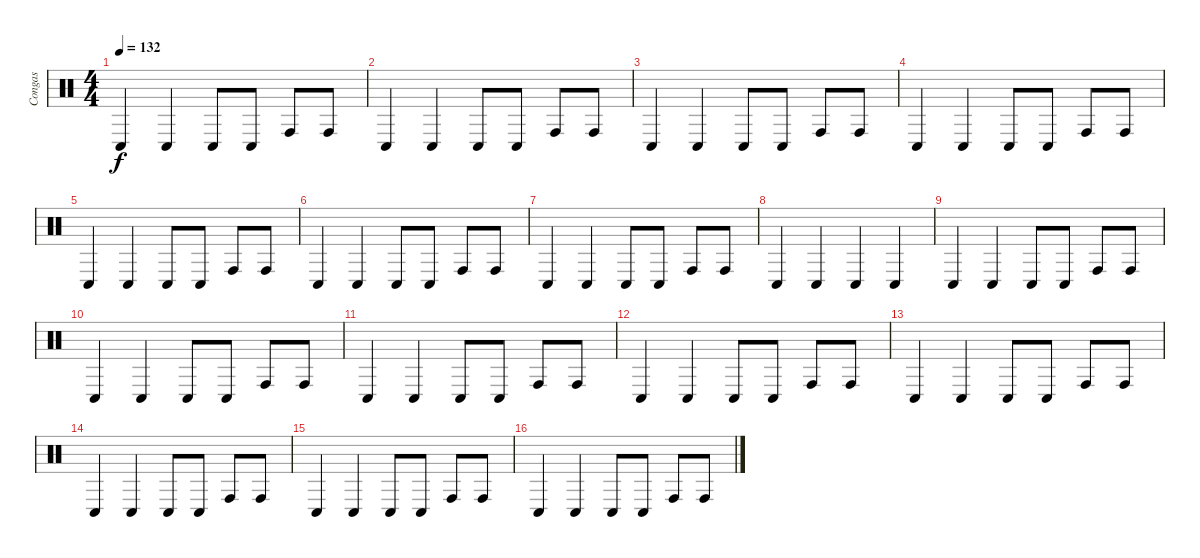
\track ("Congas" "Congas") {instrument percussion}
\staff {score}
\articulation defaults
\ts (4 4)
\tempo 132
\clef neutral
\ks c "Conga low (hit)".4{dy f} "Conga low (hit)".4 "Conga low (hit)".8 "Conga low (hit)".8 "Conga high (hit)".8 "Conga high (hit)".8
|
"Conga low (hit)".4 "Conga low (hit)".4 "Conga low (hit)".8 "Conga low (hit)".8 "Conga high (hit)".8 "Conga high (hit)".8 |
"Conga low (hit)".4 "Conga low (hit)".4 "Conga low (hit)".8 "Conga low (hit)".8 "Conga high (hit)".8 "Conga high (hit)".8 |
"Conga low (hit)".4 "Conga low (hit)".4 "Conga low (hit)".8 "Conga low (hit)".8 "Conga high (hit)".8 "Conga high (hit)".8 |
"Conga low (hit)".4 "Conga low (hit)".4 "Conga low (hit)".8 "Conga low (hit)".8 "Conga high (hit)".8 "Conga high (hit)".8 |
"Conga low (hit)".4 "Conga low (hit)".4 "Conga low (hit)".8 "Conga low (hit)".8 "Conga high (hit)".8 "Conga high (hit)".8 |
"Conga low (hit)".4 "Conga low (hit)".4 "Conga low (hit)".8 "Conga low (hit)".8 "Conga high (hit)".8 "Conga high (hit)".8 |
"Conga low (hit)".4 "Conga low (hit)".4 "Conga low (hit)".4 "Conga low (hit)".4 |
"Conga low (hit)".4 "Conga low (hit)".4 "Conga low (hit)".8 "Conga low (hit)".8 "Conga high (hit)".8 "Conga high (hit)".8 |
"Conga low (hit)".4 "Conga low (hit)".4 "Conga low (hit)".8 "Conga low (hit)".8 "Conga high (hit)".8 "Conga high (hit)".8 |
"Conga low (hit)".4 "Conga low (hit)".4 "Conga low (hit)".8 "Conga low (hit)".8 "Conga high (hit)".8 "Conga high (hit)".8 |
"Conga low (hit)".4 "Conga low (hit)".4 "Conga low (hit)".8 "Conga low (hit)".8 "Conga high (hit)".8 "Conga high (hit)".8 |
"Conga low (hit)".4 "Conga low (hit)".4 "Conga low (hit)".8 "Conga low (hit)".8 "Conga high (hit)".8 "Conga high (hit)".8 |
"Conga low (hit)".4 "Conga low (hit)".4 "Conga low (hit)".8 "Conga low (hit)".8 "Conga high (hit)".8 "Conga high (hit)".8 |
"Conga low (hit)".4 "Conga low (hit)".4 "Conga low (hit)".8 "Conga low (hit)".8 "Conga high (hit)".8 "Conga high (hit)".8 |
"Conga low (hit)".4 "Conga low (hit)".4 "Conga low (hit)".8 "Conga low (hit)".8 "Conga high (hit)".8 "Conga high (hit)".8
